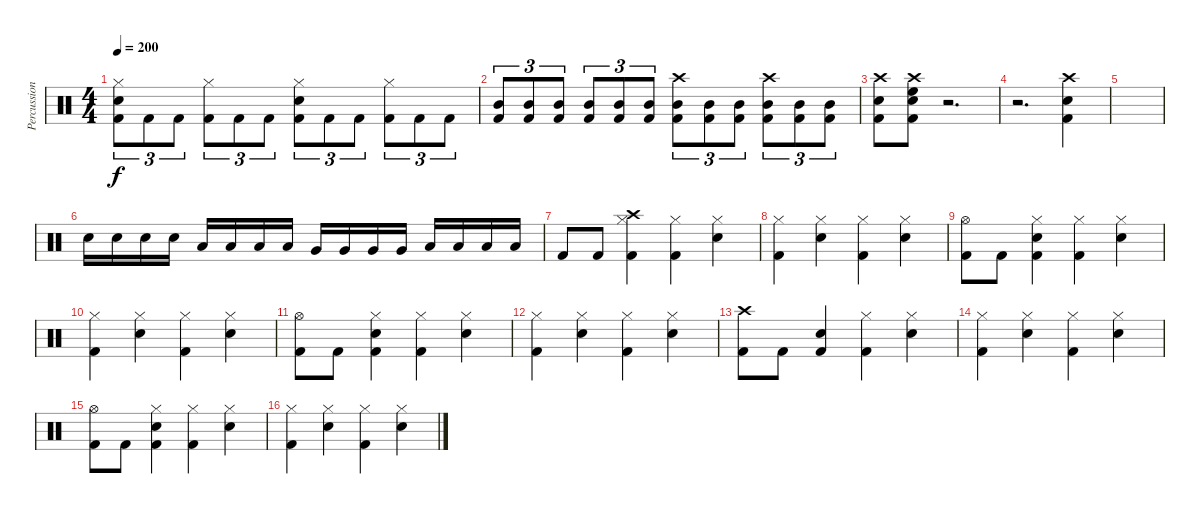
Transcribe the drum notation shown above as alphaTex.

\track ("Percussion" "Percussion") {instrument percussion}
\staff {score}
\articulation defaults
\ts (4 4)
\tempo 200
\clef neutral
\ks c
("Hi-Hat (closed)" "Snare (hit) 2" "Kick (hit) 2").8{tu (3 2) dy f} "Kick (hit) 2".8{tu (3 2)} "Kick (hit) 2".8{tu (3 2)} ("Hi-Hat (closed)" "Kick (hit) 2").8{tu (3 2)} "Kick (hit) 2".8{tu (3 2)} "Kick (hit) 2".8{tu (3 2)} ("Hi-Hat (closed)" "Snare (hit) 2" "Kick (hit) 2").8{tu (3 2)} "Kick (hit) 2".8{tu (3 2)} "Kick (hit) 2".8{tu (3 2)} ("Hi-Hat (closed)" "Kick (hit) 2").8{tu (3 2)} "Kick (hit) 2".8{tu (3 2)} "Kick (hit) 2".8{tu (3 2)} |
("Mid Tom (hit)" "Kick (hit) 2").8{tu (3 2)} ("Mid Tom (hit)" "Kick (hit) 2").8{tu (3 2)} ("Mid Tom (hit)" "Kick (hit) 2").8{tu (3 2)} ("Mid Tom (hit)" "Kick (hit) 2").8{tu (3 2)} ("Mid Tom (hit)" "Kick (hit) 2").8{tu (3 2)} ("Mid Tom (hit)" "Kick (hit) 2").8{tu (3 2)} ("Crash high (hit)" "Mid Tom (hit)" "Kick (hit) 2").8{tu (3 2)} ("Mid Tom (hit)" "Kick (hit) 2").8{tu (3 2)} ("Mid Tom (hit)" "Kick (hit) 2").8{tu (3 2)} ("Crash high (hit)" "Mid Tom (hit)" "Kick (hit) 2").8{tu (3 2)} ("Mid Tom (hit)" "Kick (hit) 2").8{tu (3 2)} ("Mid Tom (hit)" "Kick (hit) 2").8{tu (3 2)} |
("Crash high (hit)" "Snare (hit) 2" "Kick (hit) 2").8 ("Crash high (hit)" "High Floor Tom (hit)" "Snare (hit) 2" "Kick (hit) 2").8 r.2{d} |
r.2{d} ("Crash high (hit)" "Snare (hit) 2" "Kick (hit) 2").4 |
|
"Snare (hit) 2".16 "Snare (hit) 2".16 "Snare (hit) 2".16 "Snare (hit) 2".16 "Low Floor Tom (hit)".16 "Low Floor Tom (hit)".16 "Low Floor Tom (hit)".16 "Low Floor Tom (hit)".16 "Very Low Tom (hit)".16 "Very Low Tom (hit)".16 "Very Low Tom (hit)".16 "Very Low Tom (hit)".16 "Low Tom (hit)".16 "Low Tom (hit)".16 "Low Tom (hit)".16 "Low Tom (hit)".16 |
"Kick (hit) 2".8 "Kick (hit) 2".8 ("Crash high (hit)" "Hi-Hat (closed)" "Kick (hit) 2").4 ("Hi-Hat (closed)" "Kick (hit) 2").4 ("Hi-Hat (closed)" "Snare (hit) 2").4 |
("Hi-Hat (closed)" "Kick (hit) 2").4 ("Hi-Hat (closed)" "Snare (hit) 2").4 ("Hi-Hat (closed)" "Kick (hit) 2").4 ("Hi-Hat (closed)" "Snare (hit) 2").4 |
("Hi-Hat (open)" "Kick (hit) 2").8 "Kick (hit) 2".8 ("Hi-Hat (closed)" "Snare (hit) 2" "Kick (hit) 2").4 ("Hi-Hat (closed)" "Kick (hit) 2").4 ("Hi-Hat (closed)" "Snare (hit) 2").4 |
("Hi-Hat (closed)" "Kick (hit) 2").4 ("Hi-Hat (closed)" "Snare (hit) 2").4 ("Hi-Hat (closed)" "Kick (hit) 2").4 ("Hi-Hat (closed)" "Snare (hit) 2").4 |
("Hi-Hat (open)" "Kick (hit) 2").8 "Kick (hit) 2".8 ("Hi-Hat (closed)" "Snare (hit) 2" "Kick (hit) 2").4 ("Hi-Hat (closed)" "Kick (hit) 2").4 ("Hi-Hat (closed)" "Snare (hit) 2").4 |
("Hi-Hat (closed)" "Kick (hit) 2").4 ("Hi-Hat (closed)" "Snare (hit) 2").4 ("Hi-Hat (closed)" "Kick (hit) 2").4 ("Hi-Hat (closed)" "Snare (hit) 2").4 |
("Crash high (hit)" "Kick (hit) 2").8 "Kick (hit) 2".8 ("Snare (hit) 2" "Kick (hit) 2").4 ("Hi-Hat (closed)" "Kick (hit) 2").4 ("Hi-Hat (closed)" "Snare (hit) 2").4 |
("Hi-Hat (closed)" "Kick (hit) 2").4 ("Hi-Hat (closed)" "Snare (hit) 2").4 ("Hi-Hat (closed)" "Kick (hit) 2").4 ("Hi-Hat (closed)" "Snare (hit) 2").4 |
("Hi-Hat (open)" "Kick (hit) 2").8 "Kick (hit) 2".8 ("Hi-Hat (closed)" "Snare (hit) 2" "Kick (hit) 2").4 ("Hi-Hat (closed)" "Kick (hit) 2").4 ("Hi-Hat (closed)" "Snare (hit) 2").4 |
("Hi-Hat (closed)" "Kick (hit) 2").4 ("Hi-Hat (closed)" "Snare (hit) 2").4 ("Hi-Hat (closed)" "Kick (hit) 2").4 ("Hi-Hat (closed)" "Snare (hit) 2").4
